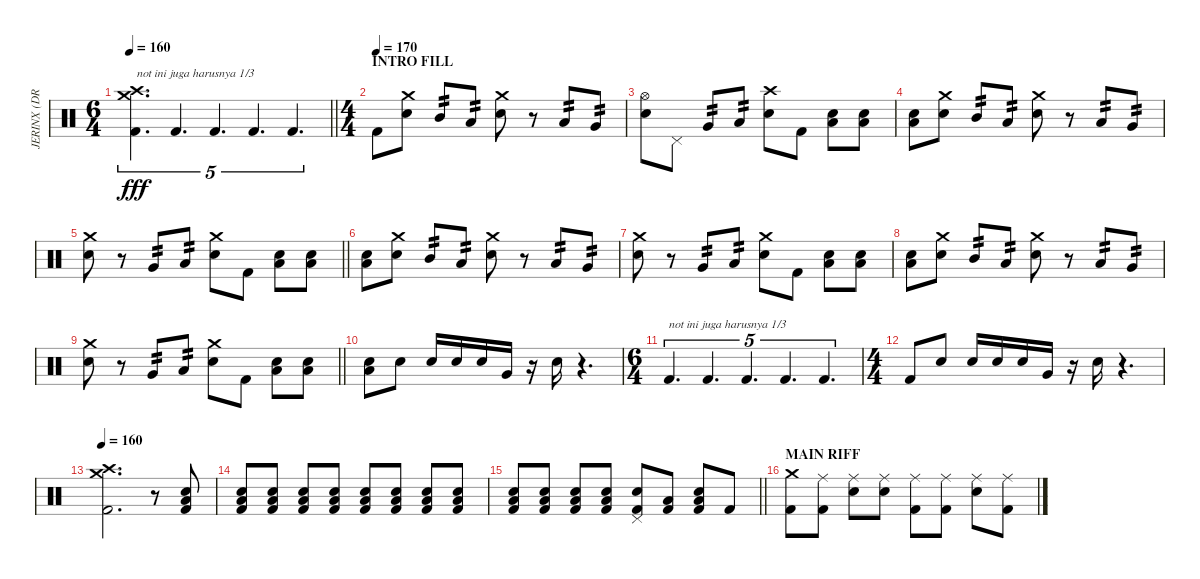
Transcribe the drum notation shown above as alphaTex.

\track ("JERINX (DRUM)" "JERINX (DR") {instrument percussion}
\staff {score}
\articulation defaults
\ts (6 4)
\tempo 160
\clef neutral
\barLineRight lightlight
\ks c
("Kick (hit) 2" "Crash high (hit)" "Crash medium (hit)").4{d tu (5 4) txt "not ini juga harusnya 1/3" dy fff} "Kick (hit) 2".4{d tu (5 4)} "Kick (hit) 2".4{d tu (5 4)} "Kick (hit) 2".4{d tu (5 4)} "Kick (hit) 2".4{d tu (5 4)} |
\ts (4 4)
\section ("" "INTRO FILL")
\tempo (170)
"Kick (hit) 2".8 ("Snare (hit) 2" "Crash medium (hit)").8 "Mid Tom (hit)".8{tp 2} "Low Tom (hit)".8{tp 2} ("Snare (hit) 2" "Crash medium (hit)").8 r.8 "Low Tom (hit)".8{tp 2} "Very Low Tom (hit)".8{tp 2} |
("Hi-Hat (open)" "Snare (hit) 2").8 "Pedal Hi-Hat (hit)".8 "Very Low Tom (hit)".8{tp 2} "Low Floor Tom (hit)".8{tp 2} ("Snare (hit) 2" "Crash high (hit)").8 "Kick (hit) 2".8 ("Snare (hit) 2" "Low Floor Tom (hit)").8 ("Snare (hit) 2" "Low Floor Tom (hit)").8 |
("Snare (hit) 2" "Low Floor Tom (hit)").8 ("Snare (hit) 2" "Crash medium (hit)").8 "Mid Tom (hit)".8{tp 2} "Low Tom (hit)".8{tp 2} ("Snare (hit) 2" "Crash medium (hit)").8 r.8 "Low Tom (hit)".8{tp 2} "Very Low Tom (hit)".8{tp 2} |
\barLineRight lightlight
("Snare (hit) 2" "Crash medium (hit)").8 r.8 "Very Low Tom (hit)".8{tp 2} "Low Floor Tom (hit)".8{tp 2} ("Snare (hit) 2" "Crash medium (hit)").8 "Kick (hit) 2".8 ("Snare (hit) 2" "Low Floor Tom (hit)").8 ("Snare (hit) 2" "Low Floor Tom (hit)").8 |
("Snare (hit) 2" "Low Floor Tom (hit)").8 ("Snare (hit) 2" "Crash medium (hit)").8 "Mid Tom (hit)".8{tp 2} "Low Tom (hit)".8{tp 2} ("Snare (hit) 2" "Crash medium (hit)").8 r.8 "Low Tom (hit)".8{tp 2} "Very Low Tom (hit)".8{tp 2} |
("Snare (hit) 2" "Crash medium (hit)").8 r.8 "Very Low Tom (hit)".8{tp 2} "Low Floor Tom (hit)".8{tp 2} ("Snare (hit) 2" "Crash medium (hit)").8 "Kick (hit) 2".8 ("Snare (hit) 2" "Low Floor Tom (hit)").8 ("Snare (hit) 2" "Low Floor Tom (hit)").8 |
("Snare (hit) 2" "Low Floor Tom (hit)").8 ("Snare (hit) 2" "Crash medium (hit)").8 "Mid Tom (hit)".8{tp 2} "Low Tom (hit)".8{tp 2} ("Snare (hit) 2" "Crash medium (hit)").8 r.8 "Low Tom (hit)".8{tp 2} "Very Low Tom (hit)".8{tp 2} |
\barLineRight lightlight
("Snare (hit) 2" "Crash medium (hit)").8 r.8 "Very Low Tom (hit)".8{tp 2} "Low Floor Tom (hit)".8{tp 2} ("Snare (hit) 2" "Crash medium (hit)").8 "Kick (hit) 2".8 ("Snare (hit) 2" "Low Floor Tom (hit)").8 ("Snare (hit) 2" "Low Floor Tom (hit)").8 |
("Snare (hit) 2" "Low Floor Tom (hit)").8 "Snare (hit) 2".8 "Snare (hit) 2".16 "Snare (hit) 2".16 "Snare (hit) 2".16 "Very Low Tom (hit)".16 r.16 "Snare (hit) 2".16 r.4{d} |
\ts (6 4)
"Kick (hit) 2".4{d tu (5 4) txt "not ini juga harusnya 1/3"} "Kick (hit) 2".4{d tu (5 4)} "Kick (hit) 2".4{d tu (5 4)} "Kick (hit) 2".4{d tu (5 4)} "Kick (hit) 2".4{d tu (5 4)} |
\ts (4 4)
"Kick (hit) 2".8 "Snare (hit) 2".8 "Snare (hit) 2".16 "Snare (hit) 2".16 "Snare (hit) 2".16 "Very Low Tom (hit)".16 r.16 "Snare (hit) 2".16 r.4{d} |
\tempo 160
("Kick (hit) 2" "Crash high (hit)" "Crash medium (hit)").2{d} r.8 ("Snare (hit) 2" "Kick (hit) 2" "Low Floor Tom (hit)").8{volume 5} |
("Snare (hit) 2" "Kick (hit) 2" "Low Floor Tom (hit)").8{volume 16} ("Snare (hit) 2" "Kick (hit) 2" "Low Floor Tom (hit)").8 ("Snare (hit) 2" "Kick (hit) 2" "Low Floor Tom (hit)").8 ("Snare (hit) 2" "Kick (hit) 2" "Low Floor Tom (hit)").8 ("Snare (hit) 2" "Kick (hit) 2" "Low Floor Tom (hit)").8 ("Snare (hit) 2" "Kick (hit) 2" "Low Floor Tom (hit)").8 ("Snare (hit) 2" "Kick (hit) 2" "Low Floor Tom (hit)").8 ("Snare (hit) 2" "Kick (hit) 2" "Low Floor Tom (hit)").8 |
\barLineRight lightlight
("Snare (hit) 2" "Kick (hit) 2" "Low Floor Tom (hit)").8 ("Snare (hit) 2" "Kick (hit) 2" "Low Floor Tom (hit)").8 ("Snare (hit) 2" "Kick (hit) 2" "Low Floor Tom (hit)").8 ("Snare (hit) 2" "Kick (hit) 2" "Low Floor Tom (hit)").8 ("Pedal Hi-Hat (hit)" "Snare (hit) 2" "Kick (hit) 2").8 ("Kick (hit) 2" "Low Floor Tom (hit)").8 ("Snare (hit) 2" "Kick (hit) 2" "Low Floor Tom (hit)").8 "Kick (hit) 2".8 |
\section ("" "MAIN RIFF")
("Kick (hit) 2" "Crash medium (hit)").8 ("Kick (hit) 2" "Ride (middle)").8 ("Snare (hit) 2" "Ride (middle)").8 ("Snare (hit) 2" "Ride (middle)").8 ("Kick (hit) 2" "Ride (middle)").8 ("Kick (hit) 2" "Ride (middle)").8 ("Snare (hit) 2" "Ride (middle)").8 ("Kick (hit) 2" "Ride (middle)").8
